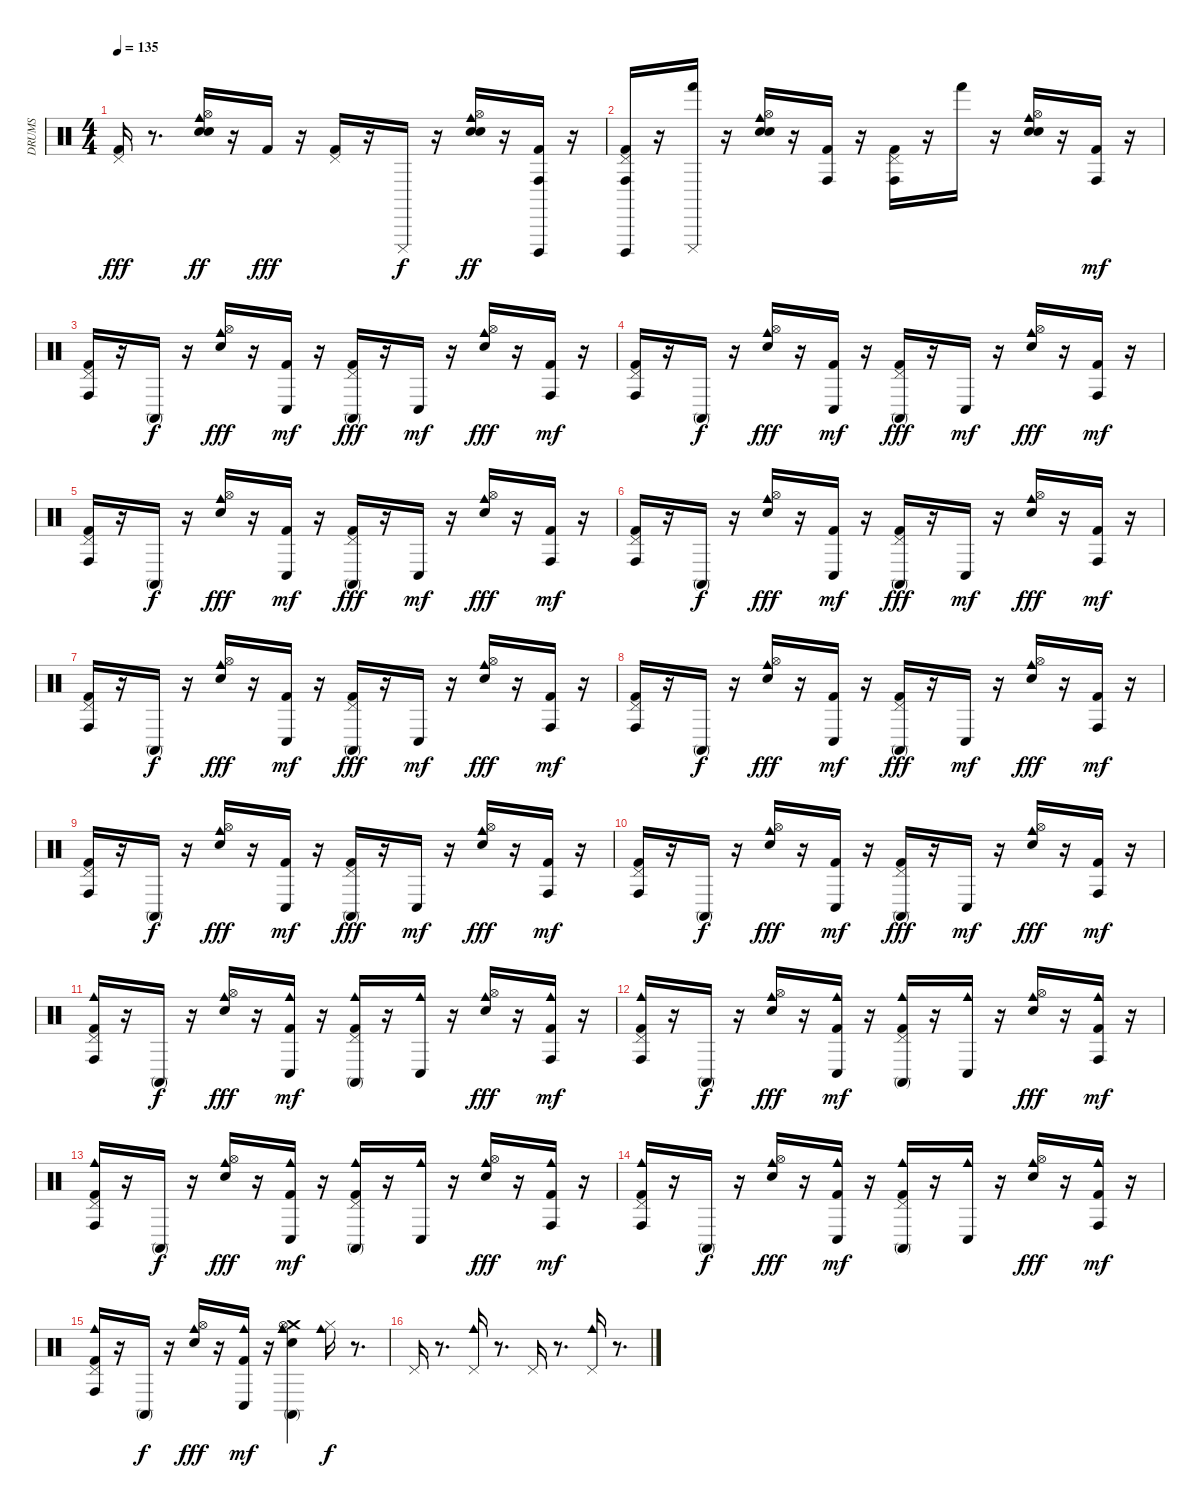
\track ("DRUMS" "DRUMS") {instrument percussion}
\staff {score}
\articulation defaults
\ts (4 4)
\tempo 135
\clef neutral
\ks c
("Kick (hit) 2" "Pedal Hi-Hat (hit)").16{dy fff} r.8{d} ("Snare (hit) 2" "Hi-Hat (open)" "Cowbell medium (hit)" "Hand Clap (hit)").16{dy ff} r.16 "Kick (hit) 2".16{dy fff} r.16 ("Kick (hit) 2" "Pedal Hi-Hat (hit)").16 r.16 "Cuica (mute)".16{dy f} r.16 ("Snare (hit) 2" "Hi-Hat (open)" "Cowbell medium (hit)" "Hand Clap (hit)").16{dy ff} r.16 ("Cuica (open)" "Kick (hit) 2" "Conga high (hit)").16 r.16 |
("Cuica (open)" "Kick (hit) 2" "Pedal Hi-Hat (hit)" "Conga high (hit)").16 r.16 ("Cuica (mute)" "Hand (hit)").16 r.16 ("Snare (hit) 2" "Hi-Hat (open)" "Cowbell medium (hit)" "Hand Clap (hit)").16 r.16 ("Kick (hit) 2" "Conga high (hit)").16 r.16 ("Kick (hit) 2" "Pedal Hi-Hat (hit)" "Conga high (hit)").16 r.16 "Hand (hit)".16 r.16 ("Snare (hit) 2" "Hi-Hat (open)" "Cowbell medium (hit)" "Hand Clap (hit)").16 r.16 ("Kick (hit) 2" "Conga high (hit)").16{dy mf} r.16 |
("Kick (hit) 2" "Pedal Hi-Hat (hit)" "Conga high (hit)").16 r.16 "Conga high (mute)".16{dy f} r.16 ("Snare (hit) 2" "Hi-Hat (open)" "Cowbell medium (hit)").16{dy fff} r.16 ("Kick (hit) 2" "Conga low (hit)").16{dy mf} r.16 ("Kick (hit) 2" "Pedal Hi-Hat (hit)" "Conga high (mute)").16{dy fff} r.16 "Conga low (hit)".16{dy mf} r.16 ("Snare (hit) 2" "Hi-Hat (open)" "Cowbell medium (hit)").16{dy fff} r.16 ("Kick (hit) 2" "Conga high (hit)").16{dy mf} r.16 |
("Kick (hit) 2" "Pedal Hi-Hat (hit)" "Conga high (hit)").16 r.16 "Conga high (mute)".16{dy f} r.16 ("Snare (hit) 2" "Hi-Hat (open)" "Cowbell medium (hit)").16{dy fff} r.16 ("Kick (hit) 2" "Conga low (hit)").16{dy mf} r.16 ("Kick (hit) 2" "Pedal Hi-Hat (hit)" "Conga high (mute)").16{dy fff} r.16 "Conga low (hit)".16{dy mf} r.16 ("Snare (hit) 2" "Hi-Hat (open)" "Cowbell medium (hit)").16{dy fff} r.16 ("Kick (hit) 2" "Conga high (hit)").16{dy mf} r.16 |
("Kick (hit) 2" "Pedal Hi-Hat (hit)" "Conga high (hit)").16 r.16 "Conga high (mute)".16{dy f} r.16 ("Snare (hit) 2" "Hi-Hat (open)" "Cowbell medium (hit)").16{dy fff} r.16 ("Kick (hit) 2" "Conga low (hit)").16{dy mf} r.16 ("Kick (hit) 2" "Pedal Hi-Hat (hit)" "Conga high (mute)").16{dy fff} r.16 "Conga low (hit)".16{dy mf} r.16 ("Snare (hit) 2" "Hi-Hat (open)" "Cowbell medium (hit)").16{dy fff} r.16 ("Kick (hit) 2" "Conga high (hit)").16{dy mf} r.16 |
("Kick (hit) 2" "Pedal Hi-Hat (hit)" "Conga high (hit)").16 r.16 "Conga high (mute)".16{dy f} r.16 ("Snare (hit) 2" "Hi-Hat (open)" "Cowbell medium (hit)").16{dy fff} r.16 ("Kick (hit) 2" "Conga low (hit)").16{dy mf} r.16 ("Kick (hit) 2" "Pedal Hi-Hat (hit)" "Conga high (mute)").16{dy fff} r.16 "Conga low (hit)".16{dy mf} r.16 ("Snare (hit) 2" "Hi-Hat (open)" "Cowbell medium (hit)").16{dy fff} r.16 ("Kick (hit) 2" "Conga high (hit)").16{dy mf} r.16 |
("Kick (hit) 2" "Pedal Hi-Hat (hit)" "Conga high (hit)").16 r.16 "Conga high (mute)".16{dy f} r.16 ("Snare (hit) 2" "Hi-Hat (open)" "Cowbell medium (hit)").16{dy fff} r.16 ("Kick (hit) 2" "Conga low (hit)").16{dy mf} r.16 ("Kick (hit) 2" "Pedal Hi-Hat (hit)" "Conga high (mute)").16{dy fff} r.16 "Conga low (hit)".16{dy mf} r.16 ("Snare (hit) 2" "Hi-Hat (open)" "Cowbell medium (hit)").16{dy fff} r.16 ("Kick (hit) 2" "Conga high (hit)").16{dy mf} r.16 |
("Kick (hit) 2" "Pedal Hi-Hat (hit)" "Conga high (hit)").16 r.16 "Conga high (mute)".16{dy f} r.16 ("Snare (hit) 2" "Hi-Hat (open)" "Cowbell medium (hit)").16{dy fff} r.16 ("Kick (hit) 2" "Conga low (hit)").16{dy mf} r.16 ("Kick (hit) 2" "Pedal Hi-Hat (hit)" "Conga high (mute)").16{dy fff} r.16 "Conga low (hit)".16{dy mf} r.16 ("Snare (hit) 2" "Hi-Hat (open)" "Cowbell medium (hit)").16{dy fff} r.16 ("Kick (hit) 2" "Conga high (hit)").16{dy mf} r.16 |
("Kick (hit) 2" "Pedal Hi-Hat (hit)" "Conga high (hit)").16 r.16 "Conga high (mute)".16{dy f} r.16 ("Snare (hit) 2" "Hi-Hat (open)" "Cowbell medium (hit)").16{dy fff} r.16 ("Kick (hit) 2" "Conga low (hit)").16{dy mf} r.16 ("Kick (hit) 2" "Pedal Hi-Hat (hit)" "Conga high (mute)").16{dy fff} r.16 "Conga low (hit)".16{dy mf} r.16 ("Snare (hit) 2" "Hi-Hat (open)" "Cowbell medium (hit)").16{dy fff} r.16 ("Kick (hit) 2" "Conga high (hit)").16{dy mf} r.16 |
("Kick (hit) 2" "Pedal Hi-Hat (hit)" "Conga high (hit)").16 r.16 "Conga high (mute)".16{dy f} r.16 ("Snare (hit) 2" "Hi-Hat (open)" "Cowbell medium (hit)").16{dy fff} r.16 ("Kick (hit) 2" "Conga low (hit)").16{dy mf} r.16 ("Kick (hit) 2" "Pedal Hi-Hat (hit)" "Conga high (mute)").16{dy fff} r.16 "Conga low (hit)".16{dy mf} r.16 ("Snare (hit) 2" "Hi-Hat (open)" "Cowbell medium (hit)").16{dy fff} r.16 ("Kick (hit) 2" "Conga high (hit)").16{dy mf} r.16 |
("Kick (hit) 2" "Pedal Hi-Hat (hit)" "Cowbell medium (hit)" "Conga high (hit)").16 r.16 "Conga high (mute)".16{dy f} r.16 ("Snare (hit) 2" "Hi-Hat (open)" "Cowbell medium (hit)").16{dy fff} r.16 ("Kick (hit) 2" "Cowbell medium (hit)" "Conga low (hit)").16{dy mf} r.16 ("Kick (hit) 2" "Pedal Hi-Hat (hit)" "Cowbell medium (hit)" "Conga high (mute)").16 r.16 ("Cowbell medium (hit)" "Conga low (hit)").16 r.16 ("Snare (hit) 2" "Hi-Hat (open)" "Cowbell medium (hit)").16{dy fff} r.16 ("Kick (hit) 2" "Cowbell medium (hit)" "Conga high (hit)").16{dy mf} r.16 |
("Kick (hit) 2" "Pedal Hi-Hat (hit)" "Cowbell medium (hit)" "Conga high (hit)").16 r.16 "Conga high (mute)".16{dy f} r.16 ("Snare (hit) 2" "Hi-Hat (open)" "Cowbell medium (hit)").16{dy fff} r.16 ("Kick (hit) 2" "Cowbell medium (hit)" "Conga low (hit)").16{dy mf} r.16 ("Kick (hit) 2" "Pedal Hi-Hat (hit)" "Cowbell medium (hit)" "Conga high (mute)").16 r.16 ("Cowbell medium (hit)" "Conga low (hit)").16 r.16 ("Snare (hit) 2" "Hi-Hat (open)" "Cowbell medium (hit)").16{dy fff} r.16 ("Kick (hit) 2" "Cowbell medium (hit)" "Conga high (hit)").16{dy mf} r.16 |
("Kick (hit) 2" "Pedal Hi-Hat (hit)" "Cowbell medium (hit)" "Conga high (hit)").16 r.16 "Conga high (mute)".16{dy f} r.16 ("Snare (hit) 2" "Hi-Hat (open)" "Cowbell medium (hit)").16{dy fff} r.16 ("Kick (hit) 2" "Cowbell medium (hit)" "Conga low (hit)").16{dy mf} r.16 ("Kick (hit) 2" "Pedal Hi-Hat (hit)" "Cowbell medium (hit)" "Conga high (mute)").16 r.16 ("Cowbell medium (hit)" "Conga low (hit)").16 r.16 ("Snare (hit) 2" "Hi-Hat (open)" "Cowbell medium (hit)").16{dy fff} r.16 ("Kick (hit) 2" "Cowbell medium (hit)" "Conga high (hit)").16{dy mf} r.16 |
("Kick (hit) 2" "Pedal Hi-Hat (hit)" "Cowbell medium (hit)" "Conga high (hit)").16 r.16 "Conga high (mute)".16{dy f} r.16 ("Snare (hit) 2" "Hi-Hat (open)" "Cowbell medium (hit)").16{dy fff} r.16 ("Kick (hit) 2" "Cowbell medium (hit)" "Conga low (hit)").16{dy mf} r.16 ("Kick (hit) 2" "Pedal Hi-Hat (hit)" "Cowbell medium (hit)" "Conga high (mute)").16 r.16 ("Cowbell medium (hit)" "Conga low (hit)").16 r.16 ("Snare (hit) 2" "Hi-Hat (open)" "Cowbell medium (hit)").16{dy fff} r.16 ("Kick (hit) 2" "Cowbell medium (hit)" "Conga high (hit)").16{dy mf} r.16 |
("Kick (hit) 2" "Pedal Hi-Hat (hit)" "Cowbell medium (hit)" "Conga high (hit)").16 r.16 "Conga high (mute)".16{dy f} r.16 ("Snare (hit) 2" "Hi-Hat (open)" "Cowbell medium (hit)").16{dy fff} r.16 ("Kick (hit) 2" "Cowbell medium (hit)" "Conga low (hit)").16{dy mf} r.16 ("Snare (hit) 2" "Crash medium (hit)" "Hi-Hat (open)" "Cowbell medium (hit)" "Conga high (mute)").4 ("Hi-Hat (closed)" "Cowbell medium (hit)").16{dy f} r.8{d} |
"Pedal Hi-Hat (hit)".16 r.8{d} ("Pedal Hi-Hat (hit)" "Cowbell medium (hit)").16 r.8{d} "Pedal Hi-Hat (hit)".16 r.8{d} ("Pedal Hi-Hat (hit)" "Cowbell medium (hit)").16 r.8{d}
